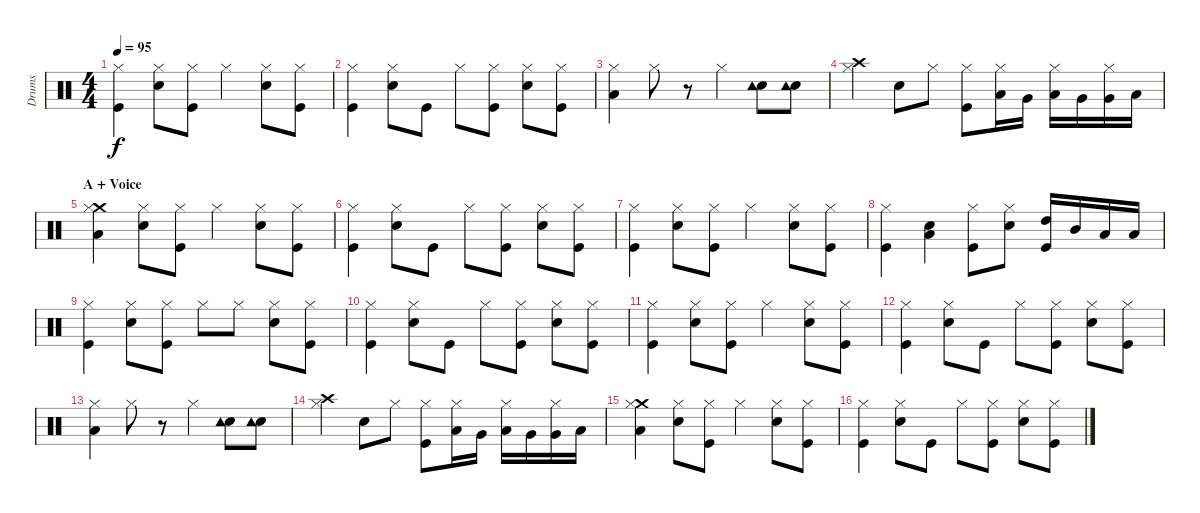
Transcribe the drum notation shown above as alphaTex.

\track ("Drums" "Drums") {instrument percussion}
\staff {score}
\articulation defaults
\ts (4 4)
\tempo 95
\clef neutral
\ks c
("Kick (hit)" "Hi-Hat (closed)").4{dy f} ("Snare (hit) 2" "Hi-Hat (closed)").8 ("Kick (hit)" "Hi-Hat (closed)").8 "Hi-Hat (closed)".4 ("Snare (hit) 2" "Hi-Hat (closed)").8 ("Kick (hit)" "Hi-Hat (closed)").8 |
("Kick (hit)" "Hi-Hat (closed)").4 ("Snare (hit) 2" "Hi-Hat (closed)").8 "Kick (hit)".8 "Hi-Hat (closed)".8 ("Kick (hit)" "Hi-Hat (closed)").8 ("Snare (hit) 2" "Hi-Hat (closed)").8 ("Kick (hit)" "Hi-Hat (closed)").8 |
("Low Tom (hit)" "Hi-Hat (closed)").4 "Hi-Hat (closed)".8 r.8 "Hi-Hat (closed)".4 ("Snare (hit) 2" "Tambourine (hit)").8 ("Snare (hit) 2" "Tambourine (hit)").8 |
("Crash high (hit)" "Hi-Hat (closed)").4 "Snare (hit) 2".8 "Hi-Hat (closed)".8 ("Kick (hit)" "Hi-Hat (closed)").8 ("Low Tom (hit)" "Hi-Hat (closed)").16 "Very Low Tom (hit)".16 ("Low Tom (hit)" "Hi-Hat (closed)").16 "Very Low Tom (hit)".16 ("Very Low Tom (hit)" "Hi-Hat (closed)").16 "Low Floor Tom (hit)".16 |
\section ("" "A + Voice")
("Crash medium (hit)" "Low Tom (hit)" "Hi-Hat (closed)").4 ("Snare (hit) 2" "Hi-Hat (closed)").8 ("Kick (hit)" "Hi-Hat (closed)").8 "Hi-Hat (closed)".4 ("Snare (hit) 2" "Hi-Hat (closed)").8 ("Kick (hit)" "Hi-Hat (closed)").8 |
("Kick (hit)" "Hi-Hat (closed)").4 ("Snare (hit) 2" "Hi-Hat (closed)").8 "Kick (hit)".8 "Hi-Hat (closed)".8 ("Kick (hit)" "Hi-Hat (closed)").8 ("Snare (hit) 2" "Hi-Hat (closed)").8 ("Kick (hit)" "Hi-Hat (closed)").8 |
("Kick (hit)" "Hi-Hat (closed)").4 ("Snare (hit) 2" "Hi-Hat (closed)").8 ("Kick (hit)" "Hi-Hat (closed)").8 "Hi-Hat (closed)".4 ("Snare (hit) 2" "Hi-Hat (closed)").8 ("Kick (hit)" "Hi-Hat (closed)").8 |
("Kick (hit)" "Hi-Hat (closed)").4 ("Snare (hit) 2" "Low Tom (hit)").4 ("Kick (hit)" "Hi-Hat (closed)").8 ("Snare (hit) 2" "Hi-Hat (closed)").8 ("Kick (hit)" "High Tom (hit)").16 "Mid Tom (hit)".16 "Low Tom (hit)".16 "Low Floor Tom (hit)".16 |
("Kick (hit)" "Hi-Hat (closed)").4 ("Snare (hit) 2" "Hi-Hat (closed)").8 ("Kick (hit)" "Hi-Hat (closed)").8 "Hi-Hat (closed)".8 "Hi-Hat (closed)".8 ("Snare (hit) 2" "Hi-Hat (closed)").8 ("Kick (hit)" "Hi-Hat (closed)").8 |
("Kick (hit)" "Hi-Hat (closed)").4 ("Snare (hit) 2" "Hi-Hat (closed)").8 "Kick (hit)".8 "Hi-Hat (closed)".8 ("Kick (hit)" "Hi-Hat (closed)").8 ("Snare (hit) 2" "Hi-Hat (closed)").8 ("Kick (hit)" "Hi-Hat (closed)").8 |
("Kick (hit)" "Hi-Hat (closed)").4 ("Snare (hit) 2" "Hi-Hat (closed)").8 ("Kick (hit)" "Hi-Hat (closed)").8 "Hi-Hat (closed)".4 ("Snare (hit) 2" "Hi-Hat (closed)").8 ("Kick (hit)" "Hi-Hat (closed)").8 |
("Kick (hit)" "Hi-Hat (closed)").4 ("Snare (hit) 2" "Hi-Hat (closed)").8 "Kick (hit)".8 "Hi-Hat (closed)".8 ("Kick (hit)" "Hi-Hat (closed)").8 ("Snare (hit) 2" "Hi-Hat (closed)").8 ("Kick (hit)" "Hi-Hat (closed)").8 |
("Low Tom (hit)" "Hi-Hat (closed)").4 "Hi-Hat (closed)".8 r.8 "Hi-Hat (closed)".4 ("Snare (hit) 2" "Tambourine (hit)").8 ("Snare (hit) 2" "Tambourine (hit)").8 |
("Crash high (hit)" "Hi-Hat (closed)").4 "Snare (hit) 2".8 "Hi-Hat (closed)".8 ("Kick (hit)" "Hi-Hat (closed)").8 ("Low Tom (hit)" "Hi-Hat (closed)").16 "Very Low Tom (hit)".16 ("Low Tom (hit)" "Hi-Hat (closed)").16 "Very Low Tom (hit)".16 ("Very Low Tom (hit)" "Hi-Hat (closed)").16 "Low Floor Tom (hit)".16 |
("Crash medium (hit)" "Low Tom (hit)" "Hi-Hat (closed)").4 ("Snare (hit) 2" "Hi-Hat (closed)").8 ("Kick (hit)" "Hi-Hat (closed)").8 "Hi-Hat (closed)".4 ("Snare (hit) 2" "Hi-Hat (closed)").8 ("Kick (hit)" "Hi-Hat (closed)").8 |
("Kick (hit)" "Hi-Hat (closed)").4 ("Snare (hit) 2" "Hi-Hat (closed)").8 "Kick (hit)".8 "Hi-Hat (closed)".8 ("Kick (hit)" "Hi-Hat (closed)").8 ("Snare (hit) 2" "Hi-Hat (closed)").8 ("Kick (hit)" "Hi-Hat (closed)").8
